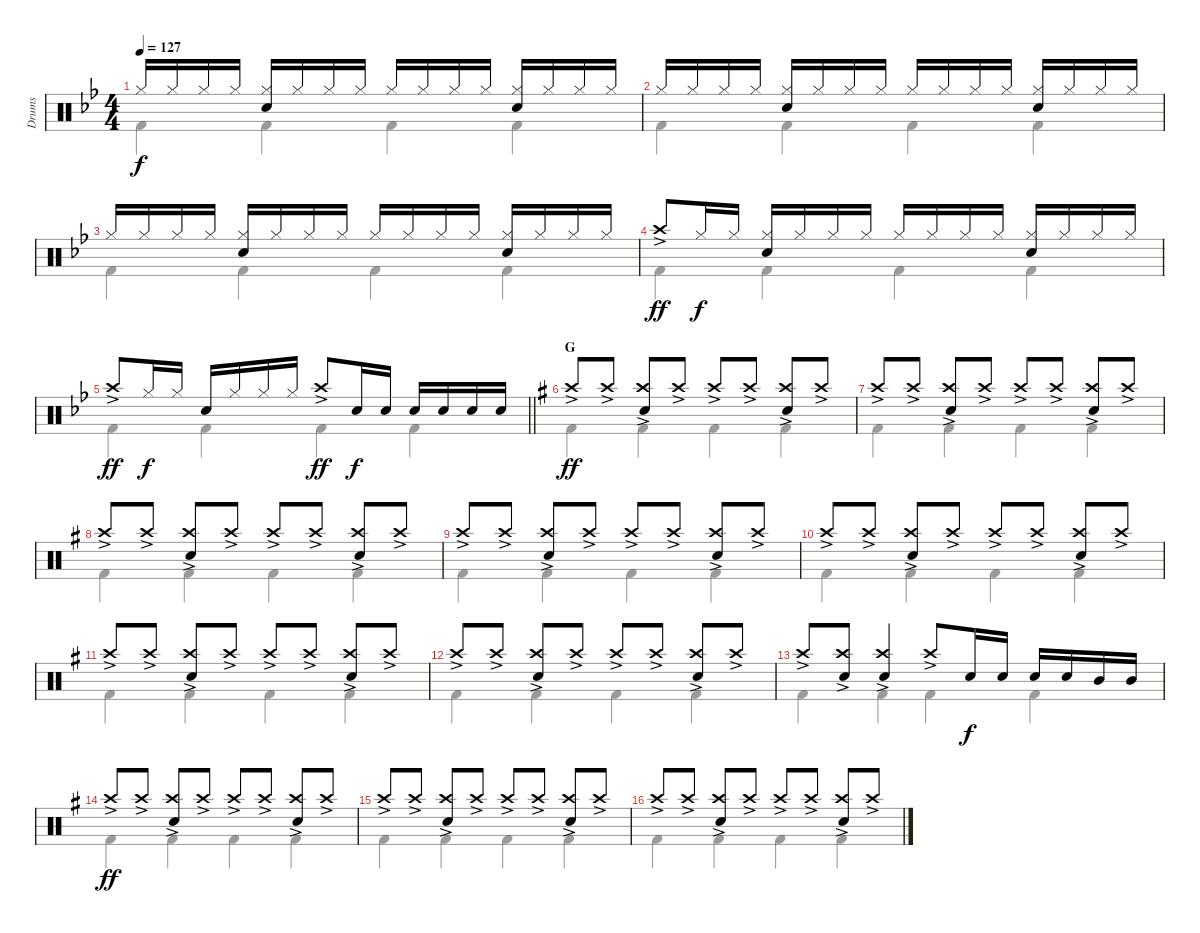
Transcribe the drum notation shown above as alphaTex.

\track ("Drums" "Drums") {instrument percussion}
\staff {score}
\articulation defaults
\voice
\ts (4 4)
\tempo 127
\clef neutral
\ks bb "Hi-Hat (closed)".16{dy f} "Hi-Hat (closed)".16 "Hi-Hat (closed)".16 "Hi-Hat (closed)".16
("Hi-Hat (closed)" "Snare (hit) 2").16 "Hi-Hat (closed)".16 "Hi-Hat (closed)".16 "Hi-Hat (closed)".16 "Hi-Hat (closed)".16 "Hi-Hat (closed)".16 "Hi-Hat (closed)".16 "Hi-Hat (closed)".16 ("Hi-Hat (closed)" "Snare (hit) 2").16 "Hi-Hat (closed)".16 "Hi-Hat (closed)".16 "Hi-Hat (closed)".16 |
"Hi-Hat (closed)".16 "Hi-Hat (closed)".16 "Hi-Hat (closed)".16 "Hi-Hat (closed)".16 ("Hi-Hat (closed)" "Snare (hit) 2").16 "Hi-Hat (closed)".16 "Hi-Hat (closed)".16 "Hi-Hat (closed)".16 "Hi-Hat (closed)".16 "Hi-Hat (closed)".16 "Hi-Hat (closed)".16 "Hi-Hat (closed)".16 ("Hi-Hat (closed)" "Snare (hit) 2").16 "Hi-Hat (closed)".16 "Hi-Hat (closed)".16 "Hi-Hat (closed)".16 |
"Hi-Hat (closed)".16 "Hi-Hat (closed)".16 "Hi-Hat (closed)".16 "Hi-Hat (closed)".16 ("Hi-Hat (closed)" "Snare (hit) 2").16 "Hi-Hat (closed)".16 "Hi-Hat (closed)".16 "Hi-Hat (closed)".16 "Hi-Hat (closed)".16 "Hi-Hat (closed)".16 "Hi-Hat (closed)".16 "Hi-Hat (closed)".16 ("Hi-Hat (closed)" "Snare (hit) 2").16 "Hi-Hat (closed)".16 "Hi-Hat (closed)".16 "Hi-Hat (closed)".16 |
"Crash high (hit)"{ac}.8{dy ff} "Hi-Hat (closed)".16{dy f} "Hi-Hat (closed)".16 ("Hi-Hat (closed)" "Snare (hit) 2").16 "Hi-Hat (closed)".16 "Hi-Hat (closed)".16 "Hi-Hat (closed)".16 "Hi-Hat (closed)".16 "Hi-Hat (closed)".16 "Hi-Hat (closed)".16 "Hi-Hat (closed)".16 ("Hi-Hat (closed)" "Snare (hit) 2").16 "Hi-Hat (closed)".16 "Hi-Hat (closed)".16 "Hi-Hat (closed)".16 |
\barLineRight lightlight "Crash high (hit)"{ac}.8{dy ff} "Hi-Hat (closed)".16{dy f} "Hi-Hat (closed)".16 "Snare (hit) 2".16 "Hi-Hat (closed)".16 "Hi-Hat (closed)".16 "Hi-Hat (closed)".16 "Crash high (hit)"{ac}.8{dy ff} "Snare (hit) 2".16{dy f} "Snare (hit) 2".16 "Snare (hit) 2".16 "Snare (hit) 2".16 "Snare (hit) 2".16 "Snare (hit) 2".16
|
\section ("" "G")
\ks g "Crash high (hit)"{ac}.8{dy ff} "Crash high (hit)"{ac}.8
("Crash high (hit)"{ac} "Snare (hit) 2").8 "Crash high (hit)"{ac}.8 "Crash high (hit)"{ac}.8 "Crash high (hit)"{ac}.8 ("Crash high (hit)"{ac} "Snare (hit) 2").8 "Crash high (hit)"{ac}.8 |
"Crash high (hit)"{ac}.8 "Crash high (hit)"{ac}.8 ("Crash high (hit)"{ac} "Snare (hit) 2").8 "Crash high (hit)"{ac}.8 "Crash high (hit)"{ac}.8 "Crash high (hit)"{ac}.8 ("Crash high (hit)"{ac} "Snare (hit) 2").8 "Crash high (hit)"{ac}.8 |
"Crash high (hit)"{ac}.8 "Crash high (hit)"{ac}.8 ("Crash high (hit)"{ac} "Snare (hit) 2").8 "Crash high (hit)"{ac}.8 "Crash high (hit)"{ac}.8 "Crash high (hit)"{ac}.8 ("Crash high (hit)"{ac} "Snare (hit) 2").8 "Crash high (hit)"{ac}.8 |
"Crash high (hit)"{ac}.8 "Crash high (hit)"{ac}.8 ("Crash high (hit)"{ac} "Snare (hit) 2").8 "Crash high (hit)"{ac}.8 "Crash high (hit)"{ac}.8 "Crash high (hit)"{ac}.8 ("Crash high (hit)"{ac} "Snare (hit) 2").8 "Crash high (hit)"{ac}.8 |
"Crash high (hit)"{ac}.8 "Crash high (hit)"{ac}.8 ("Crash high (hit)"{ac} "Snare (hit) 2").8 "Crash high (hit)"{ac}.8 "Crash high (hit)"{ac}.8 "Crash high (hit)"{ac}.8 ("Crash high (hit)"{ac} "Snare (hit) 2").8 "Crash high (hit)"{ac}.8 |
"Crash high (hit)"{ac}.8 "Crash high (hit)"{ac}.8 ("Crash high (hit)"{ac} "Snare (hit) 2").8 "Crash high (hit)"{ac}.8 "Crash high (hit)"{ac}.8 "Crash high (hit)"{ac}.8 ("Crash high (hit)"{ac} "Snare (hit) 2").8 "Crash high (hit)"{ac}.8 |
"Crash high (hit)"{ac}.8 "Crash high (hit)"{ac}.8 ("Crash high (hit)"{ac} "Snare (hit) 2").8 "Crash high (hit)"{ac}.8 "Crash high (hit)"{ac}.8 "Crash high (hit)"{ac}.8 ("Crash high (hit)"{ac} "Snare (hit) 2").8 "Crash high (hit)"{ac}.8 |
"Crash high (hit)"{ac}.8 ("Crash high (hit)"{ac} "Snare (hit) 2").8 ("Crash high (hit)"{ac} "Snare (hit) 2").4 "Crash high (hit)"{ac}.8 "Snare (hit) 2".16{dy f} "Snare (hit) 2".16 "Snare (hit) 2".16 "Snare (hit) 2".16 "Mid Tom (hit)".16 "Mid Tom (hit)".16 |
"Crash high (hit)"{ac}.8{dy ff} "Crash high (hit)"{ac}.8 ("Crash high (hit)"{ac} "Snare (hit) 2").8 "Crash high (hit)"{ac}.8 "Crash high (hit)"{ac}.8 "Crash high (hit)"{ac}.8 ("Crash high (hit)"{ac} "Snare (hit) 2").8 "Crash high (hit)"{ac}.8 |
"Crash high (hit)"{ac}.8 "Crash high (hit)"{ac}.8 ("Crash high (hit)"{ac} "Snare (hit) 2").8 "Crash high (hit)"{ac}.8 "Crash high (hit)"{ac}.8 "Crash high (hit)"{ac}.8 ("Crash high (hit)"{ac} "Snare (hit) 2").8 "Crash high (hit)"{ac}.8 |
"Crash high (hit)"{ac}.8 "Crash high (hit)"{ac}.8 ("Crash high (hit)"{ac} "Snare (hit) 2").8 "Crash high (hit)"{ac}.8 "Crash high (hit)"{ac}.8 "Crash high (hit)"{ac}.8 ("Crash high (hit)"{ac} "Snare (hit) 2").8 "Crash high (hit)"{ac}.8
\voice
\clef neutral
\ottava regular
\simile none
\ks bb "Kick (hit) 2".4{dy f} "Kick (hit) 2".4 "Kick (hit) 2".4 "Kick (hit) 2".4
|
"Kick (hit) 2".4 "Kick (hit) 2".4 "Kick (hit) 2".4 "Kick (hit) 2".4 |
"Kick (hit) 2".4 "Kick (hit) 2".4 "Kick (hit) 2".4 "Kick (hit) 2".4 |
"Kick (hit) 2".4 "Kick (hit) 2".4 "Kick (hit) 2".4 "Kick (hit) 2".4 |
\barLineRight lightlight "Kick (hit) 2".4 "Kick (hit) 2".4 "Kick (hit) 2".4 "Kick (hit) 2".4
|
\ks g "Kick (hit) 2".4 "Kick (hit) 2".4 "Kick (hit) 2".4 "Kick (hit) 2".4
|
"Kick (hit) 2".4 "Kick (hit) 2".4 "Kick (hit) 2".4 "Kick (hit) 2".4 |
"Kick (hit) 2".4 "Kick (hit) 2".4 "Kick (hit) 2".4 "Kick (hit) 2".4 |
"Kick (hit) 2".4 "Kick (hit) 2".4 "Kick (hit) 2".4 "Kick (hit) 2".4 |
"Kick (hit) 2".4 "Kick (hit) 2".4 "Kick (hit) 2".4 "Kick (hit) 2".4 |
"Kick (hit) 2".4 "Kick (hit) 2".4 "Kick (hit) 2".4 "Kick (hit) 2".4 |
"Kick (hit) 2".4 "Kick (hit) 2".4 "Kick (hit) 2".4 "Kick (hit) 2".4 |
"Kick (hit) 2".4 "Kick (hit) 2".4 "Kick (hit) 2".4 "Kick (hit) 2".4 |
"Kick (hit) 2".4 "Kick (hit) 2".4 "Kick (hit) 2".4 "Kick (hit) 2".4 |
"Kick (hit) 2".4 "Kick (hit) 2".4 "Kick (hit) 2".4 "Kick (hit) 2".4 |
"Kick (hit) 2".4 "Kick (hit) 2".4 "Kick (hit) 2".4 "Kick (hit) 2".4
